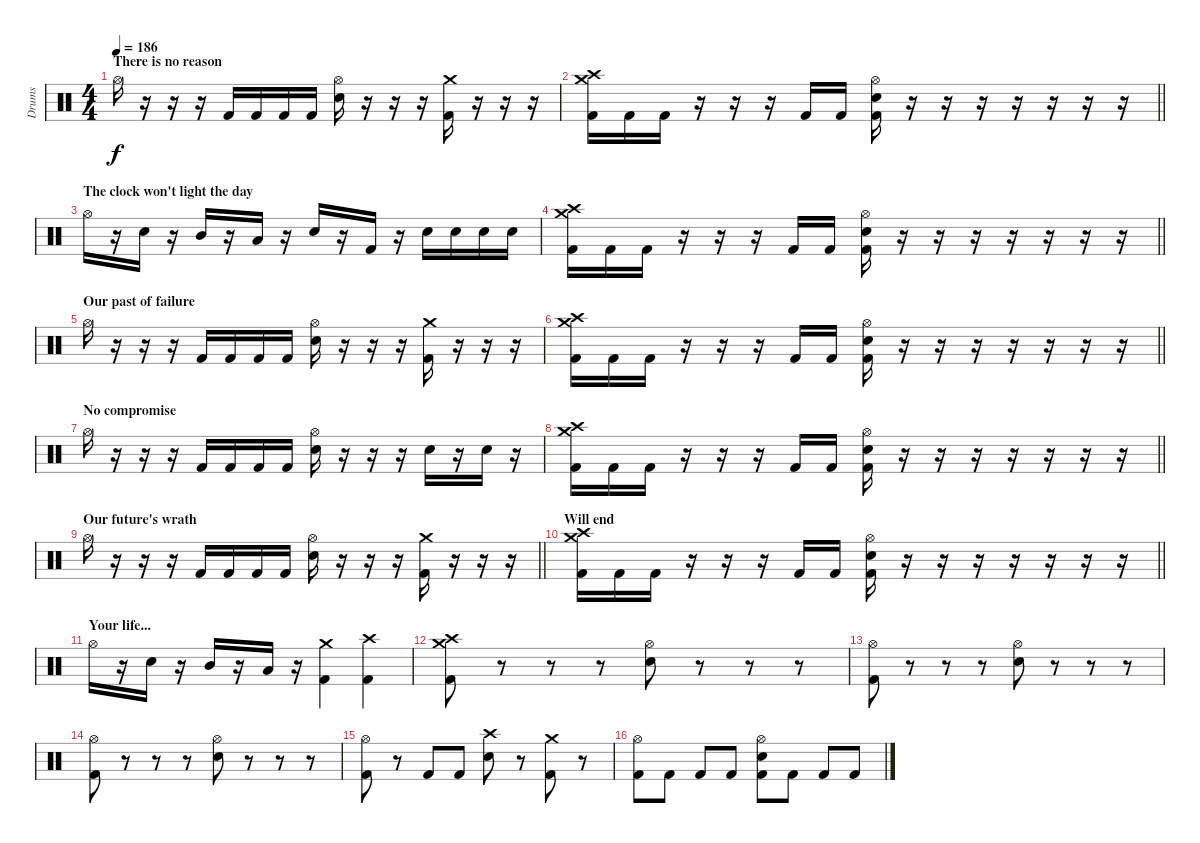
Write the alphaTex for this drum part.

\track ("Drums" "Drums") {instrument percussion}
\staff {score}
\articulation defaults
\ts (4 4)
\section ("" "There is no reason")
\tempo 186
\clef neutral
\ks c "Hi-Hat (open)".16{dy f}
r.16 r.16 r.16 "Kick (hit) 2".16 "Kick (hit) 2".16 "Kick (hit) 2".16 "Kick (hit) 2".16 ("Hi-Hat (open)" "Snare (hit) 2").16 r.16 r.16 r.16 ("Crash medium (hit)" "Kick (hit) 2").16 r.16 r.16 r.16 |
\barLineRight lightlight
("Crash high (hit)" "Crash medium (hit)" "Kick (hit) 2").16 "Kick (hit) 2".16 "Kick (hit) 2".16 r.16 r.16 r.16 "Kick (hit) 2".16 "Kick (hit) 2".16 ("Hi-Hat (open)" "Snare (hit) 2" "Kick (hit) 2").16 r.16 r.16 r.16 r.16 r.16 r.16 r.16 |
\section ("" "The clock won't light the day")
"Hi-Hat (open)".16 r.16 "Snare (hit) 2".16 r.16 "Mid Tom (hit)".16 r.16 "Low Tom (hit)".16 r.16 "Snare (hit) 2".16 r.16 "Kick (hit) 2".16 r.16 "Snare (hit) 2".16 "Snare (hit) 2".16 "Snare (hit) 2".16 "Snare (hit) 2".16 |
\barLineRight lightlight
("Crash high (hit)" "Crash medium (hit)" "Kick (hit) 2").16 "Kick (hit) 2".16 "Kick (hit) 2".16 r.16 r.16 r.16 "Kick (hit) 2".16 "Kick (hit) 2".16 ("Hi-Hat (open)" "Snare (hit) 2" "Kick (hit) 2").16 r.16 r.16 r.16 r.16 r.16 r.16 r.16 |
\section ("" "Our past of failure")
"Hi-Hat (open)".16 r.16 r.16 r.16 "Kick (hit) 2".16 "Kick (hit) 2".16 "Kick (hit) 2".16 "Kick (hit) 2".16 ("Hi-Hat (open)" "Snare (hit) 2").16 r.16 r.16 r.16 ("Crash medium (hit)" "Kick (hit) 2").16 r.16 r.16 r.16 |
\barLineRight lightlight
("Crash high (hit)" "Crash medium (hit)" "Kick (hit) 2").16 "Kick (hit) 2".16 "Kick (hit) 2".16 r.16 r.16 r.16 "Kick (hit) 2".16 "Kick (hit) 2".16 ("Hi-Hat (open)" "Snare (hit) 2" "Kick (hit) 2").16 r.16 r.16 r.16 r.16 r.16 r.16 r.16 |
\section ("" "No compromise")
"Hi-Hat (open)".16 r.16 r.16 r.16 "Kick (hit) 2".16 "Kick (hit) 2".16 "Kick (hit) 2".16 "Kick (hit) 2".16 ("Hi-Hat (open)" "Snare (hit) 2").16 r.16 r.16 r.16 "Snare (hit) 2".16 r.16 "Snare (hit) 2".16 r.16 |
\barLineRight lightlight
("Crash high (hit)" "Crash medium (hit)" "Kick (hit) 2").16 "Kick (hit) 2".16 "Kick (hit) 2".16 r.16 r.16 r.16 "Kick (hit) 2".16 "Kick (hit) 2".16 ("Hi-Hat (open)" "Snare (hit) 2" "Kick (hit) 2").16 r.16 r.16 r.16 r.16 r.16 r.16 r.16 |
\section ("" "Our future's wrath")
\barLineRight lightlight "Hi-Hat (open)".16
r.16 r.16 r.16 "Kick (hit) 2".16 "Kick (hit) 2".16 "Kick (hit) 2".16 "Kick (hit) 2".16 ("Hi-Hat (open)" "Snare (hit) 2").16 r.16 r.16 r.16 ("Crash medium (hit)" "Kick (hit) 2").16 r.16 r.16 r.16 |
\section ("" "Will end")
\barLineRight lightlight
("Crash high (hit)" "Crash medium (hit)" "Kick (hit) 2").16 "Kick (hit) 2".16 "Kick (hit) 2".16 r.16 r.16 r.16 "Kick (hit) 2".16 "Kick (hit) 2".16 ("Hi-Hat (open)" "Snare (hit) 2" "Kick (hit) 2").16 r.16 r.16 r.16 r.16 r.16 r.16 r.16 |
\section ("" "Your life...")
"Hi-Hat (open)".16 r.16 "Snare (hit) 2".16 r.16 "Mid Tom (hit)".16 r.16 "Low Tom (hit)".16 r.16 ("Crash medium (hit)" "Kick (hit) 2").4 ("Crash high (hit)" "Kick (hit) 2").4 |
("Crash high (hit)" "Crash medium (hit)" "Kick (hit) 2").8 r.8 r.8 r.8 ("Hi-Hat (open)" "Snare (hit) 2").8 r.8 r.8 r.8 |
("Hi-Hat (open)" "Kick (hit) 2").8 r.8 r.8 r.8 ("Hi-Hat (open)" "Snare (hit) 2").8 r.8 r.8 r.8 |
("Hi-Hat (open)" "Kick (hit) 2").8 r.8 r.8 r.8 ("Hi-Hat (open)" "Snare (hit) 2").8 r.8 r.8 r.8 |
("Hi-Hat (open)" "Kick (hit) 2").8 r.8 "Kick (hit) 2".8 "Kick (hit) 2".8 ("Crash high (hit)" "Snare (hit) 2").8 r.8 ("Crash medium (hit)" "Kick (hit) 2").8 r.8 |
("Hi-Hat (open)" "Kick (hit) 2").8 "Kick (hit) 2".8 "Kick (hit) 2".8 "Kick (hit) 2".8 ("Hi-Hat (open)" "Snare (hit) 2" "Kick (hit) 2").8 "Kick (hit) 2".8 "Kick (hit) 2".8 "Kick (hit) 2".8
